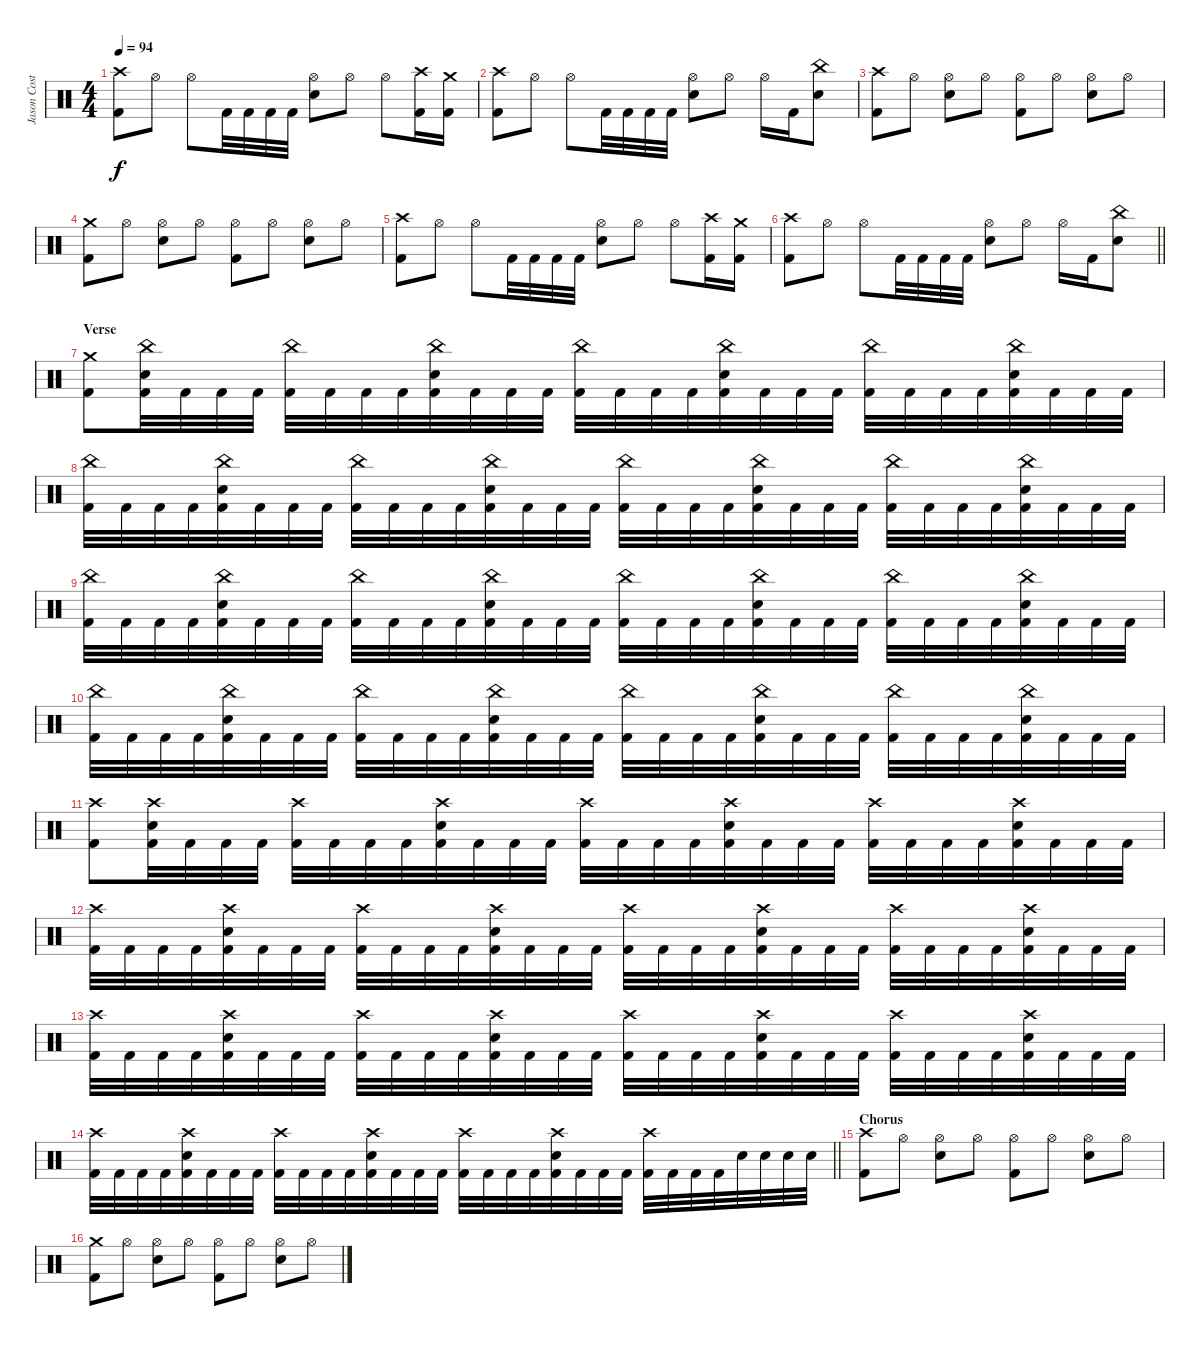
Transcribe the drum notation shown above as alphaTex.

\track ("Jason Costa" "Jason Cost") {instrument percussion}
\staff {score}
\articulation defaults
\ts (4 4)
\tempo 94
\clef neutral
\ks c
("Crash high (hit)" "Kick (hit) 2").8{dy f} "Hi-Hat (open)".8 "Hi-Hat (open)".8 "Kick (hit) 2".32 "Kick (hit) 2".32 "Kick (hit) 2".32 "Kick (hit) 2".32 ("Snare (hit) 2" "Hi-Hat (open)").8 "Hi-Hat (open)".8 "Hi-Hat (open)".8 ("Crash high (hit)" "Kick (hit) 2").16 ("Crash medium (hit)" "Kick (hit) 2").16 |
("Crash high (hit)" "Kick (hit) 2").8 "Hi-Hat (open)".8 "Hi-Hat (open)".8 "Kick (hit) 2".32 "Kick (hit) 2".32 "Kick (hit) 2".32 "Kick (hit) 2".32 ("Snare (hit) 2" "Hi-Hat (open)").8 "Hi-Hat (open)".8 "Hi-Hat (open)".16 "Kick (hit) 2".16 ("China (hit)" "Snare (hit) 2").8 |
("Crash high (hit)" "Kick (hit) 2").8 "Hi-Hat (open)".8 ("Snare (hit) 2" "Hi-Hat (open)").8 "Hi-Hat (open)".8 ("Hi-Hat (open)" "Kick (hit) 2").8 "Hi-Hat (open)".8 ("Snare (hit) 2" "Hi-Hat (open)").8 "Hi-Hat (open)".8 |
("Crash medium (hit)" "Kick (hit) 2").8 "Hi-Hat (open)".8 ("Snare (hit) 2" "Hi-Hat (open)").8 "Hi-Hat (open)".8 ("Hi-Hat (open)" "Kick (hit) 2").8 "Hi-Hat (open)".8 ("Snare (hit) 2" "Hi-Hat (open)").8 "Hi-Hat (open)".8 |
("Crash high (hit)" "Kick (hit) 2").8 "Hi-Hat (open)".8 "Hi-Hat (open)".8 "Kick (hit) 2".32 "Kick (hit) 2".32 "Kick (hit) 2".32 "Kick (hit) 2".32 ("Snare (hit) 2" "Hi-Hat (open)").8 "Hi-Hat (open)".8 "Hi-Hat (open)".8 ("Crash high (hit)" "Kick (hit) 2").16 ("Crash medium (hit)" "Kick (hit) 2").16 |
\barLineRight lightlight
("Crash high (hit)" "Kick (hit) 2").8 "Hi-Hat (open)".8 "Hi-Hat (open)".8 "Kick (hit) 2".32 "Kick (hit) 2".32 "Kick (hit) 2".32 "Kick (hit) 2".32 ("Snare (hit) 2" "Hi-Hat (open)").8 "Hi-Hat (open)".8 "Hi-Hat (open)".16 "Kick (hit) 2".16 ("China (hit)" "Snare (hit) 2").8 |
\section ("" "Verse")
("Crash medium (hit)" "Kick (hit) 2").8 ("China (hit)" "Snare (hit) 2" "Kick (hit) 2").32 "Kick (hit) 2".32 "Kick (hit) 2".32 "Kick (hit) 2".32 ("China (hit)" "Kick (hit) 2").32 "Kick (hit) 2".32 "Kick (hit) 2".32 "Kick (hit) 2".32 ("China (hit)" "Snare (hit) 2" "Kick (hit) 2").32 "Kick (hit) 2".32 "Kick (hit) 2".32 "Kick (hit) 2".32 ("China (hit)" "Kick (hit) 2").32 "Kick (hit) 2".32 "Kick (hit) 2".32 "Kick (hit) 2".32 ("China (hit)" "Snare (hit) 2" "Kick (hit) 2").32 "Kick (hit) 2".32 "Kick (hit) 2".32 "Kick (hit) 2".32 ("China (hit)" "Kick (hit) 2").32 "Kick (hit) 2".32 "Kick (hit) 2".32 "Kick (hit) 2".32 ("China (hit)" "Snare (hit) 2" "Kick (hit) 2").32 "Kick (hit) 2".32 "Kick (hit) 2".32 "Kick (hit) 2".32 |
("China (hit)" "Kick (hit) 2").32 "Kick (hit) 2".32 "Kick (hit) 2".32 "Kick (hit) 2".32 ("China (hit)" "Snare (hit) 2" "Kick (hit) 2").32 "Kick (hit) 2".32 "Kick (hit) 2".32 "Kick (hit) 2".32 ("China (hit)" "Kick (hit) 2").32 "Kick (hit) 2".32 "Kick (hit) 2".32 "Kick (hit) 2".32 ("China (hit)" "Snare (hit) 2" "Kick (hit) 2").32 "Kick (hit) 2".32 "Kick (hit) 2".32 "Kick (hit) 2".32 ("China (hit)" "Kick (hit) 2").32 "Kick (hit) 2".32 "Kick (hit) 2".32 "Kick (hit) 2".32 ("China (hit)" "Snare (hit) 2" "Kick (hit) 2").32 "Kick (hit) 2".32 "Kick (hit) 2".32 "Kick (hit) 2".32 ("China (hit)" "Kick (hit) 2").32 "Kick (hit) 2".32 "Kick (hit) 2".32 "Kick (hit) 2".32 ("China (hit)" "Snare (hit) 2" "Kick (hit) 2").32 "Kick (hit) 2".32 "Kick (hit) 2".32 "Kick (hit) 2".32 |
("China (hit)" "Kick (hit) 2").32 "Kick (hit) 2".32 "Kick (hit) 2".32 "Kick (hit) 2".32 ("China (hit)" "Snare (hit) 2" "Kick (hit) 2").32 "Kick (hit) 2".32 "Kick (hit) 2".32 "Kick (hit) 2".32 ("China (hit)" "Kick (hit) 2").32 "Kick (hit) 2".32 "Kick (hit) 2".32 "Kick (hit) 2".32 ("China (hit)" "Snare (hit) 2" "Kick (hit) 2").32 "Kick (hit) 2".32 "Kick (hit) 2".32 "Kick (hit) 2".32 ("China (hit)" "Kick (hit) 2").32 "Kick (hit) 2".32 "Kick (hit) 2".32 "Kick (hit) 2".32 ("China (hit)" "Snare (hit) 2" "Kick (hit) 2").32 "Kick (hit) 2".32 "Kick (hit) 2".32 "Kick (hit) 2".32 ("China (hit)" "Kick (hit) 2").32 "Kick (hit) 2".32 "Kick (hit) 2".32 "Kick (hit) 2".32 ("China (hit)" "Snare (hit) 2" "Kick (hit) 2").32 "Kick (hit) 2".32 "Kick (hit) 2".32 "Kick (hit) 2".32 |
("China (hit)" "Kick (hit) 2").32 "Kick (hit) 2".32 "Kick (hit) 2".32 "Kick (hit) 2".32 ("China (hit)" "Snare (hit) 2" "Kick (hit) 2").32 "Kick (hit) 2".32 "Kick (hit) 2".32 "Kick (hit) 2".32 ("China (hit)" "Kick (hit) 2").32 "Kick (hit) 2".32 "Kick (hit) 2".32 "Kick (hit) 2".32 ("China (hit)" "Snare (hit) 2" "Kick (hit) 2").32 "Kick (hit) 2".32 "Kick (hit) 2".32 "Kick (hit) 2".32 ("China (hit)" "Kick (hit) 2").32 "Kick (hit) 2".32 "Kick (hit) 2".32 "Kick (hit) 2".32 ("China (hit)" "Snare (hit) 2" "Kick (hit) 2").32 "Kick (hit) 2".32 "Kick (hit) 2".32 "Kick (hit) 2".32 ("China (hit)" "Kick (hit) 2").32 "Kick (hit) 2".32 "Kick (hit) 2".32 "Kick (hit) 2".32 ("China (hit)" "Snare (hit) 2" "Kick (hit) 2").32 "Kick (hit) 2".32 "Kick (hit) 2".32 "Kick (hit) 2".32 |
("Crash high (hit)" "Kick (hit) 2").8 ("Crash high (hit)" "Snare (hit) 2" "Kick (hit) 2").32 "Kick (hit) 2".32 "Kick (hit) 2".32 "Kick (hit) 2".32 ("Crash high (hit)" "Kick (hit) 2").32 "Kick (hit) 2".32 "Kick (hit) 2".32 "Kick (hit) 2".32 ("Crash high (hit)" "Snare (hit) 2" "Kick (hit) 2").32 "Kick (hit) 2".32 "Kick (hit) 2".32 "Kick (hit) 2".32 ("Crash high (hit)" "Kick (hit) 2").32 "Kick (hit) 2".32 "Kick (hit) 2".32 "Kick (hit) 2".32 ("Crash high (hit)" "Snare (hit) 2" "Kick (hit) 2").32 "Kick (hit) 2".32 "Kick (hit) 2".32 "Kick (hit) 2".32 ("Crash high (hit)" "Kick (hit) 2").32 "Kick (hit) 2".32 "Kick (hit) 2".32 "Kick (hit) 2".32 ("Crash high (hit)" "Snare (hit) 2" "Kick (hit) 2").32 "Kick (hit) 2".32 "Kick (hit) 2".32 "Kick (hit) 2".32 |
("Crash high (hit)" "Kick (hit) 2").32 "Kick (hit) 2".32 "Kick (hit) 2".32 "Kick (hit) 2".32 ("Crash high (hit)" "Snare (hit) 2" "Kick (hit) 2").32 "Kick (hit) 2".32 "Kick (hit) 2".32 "Kick (hit) 2".32 ("Crash high (hit)" "Kick (hit) 2").32 "Kick (hit) 2".32 "Kick (hit) 2".32 "Kick (hit) 2".32 ("Crash high (hit)" "Snare (hit) 2" "Kick (hit) 2").32 "Kick (hit) 2".32 "Kick (hit) 2".32 "Kick (hit) 2".32 ("Crash high (hit)" "Kick (hit) 2").32 "Kick (hit) 2".32 "Kick (hit) 2".32 "Kick (hit) 2".32 ("Crash high (hit)" "Snare (hit) 2" "Kick (hit) 2").32 "Kick (hit) 2".32 "Kick (hit) 2".32 "Kick (hit) 2".32 ("Crash high (hit)" "Kick (hit) 2").32 "Kick (hit) 2".32 "Kick (hit) 2".32 "Kick (hit) 2".32 ("Crash high (hit)" "Snare (hit) 2" "Kick (hit) 2").32 "Kick (hit) 2".32 "Kick (hit) 2".32 "Kick (hit) 2".32 |
("Crash high (hit)" "Kick (hit) 2").32 "Kick (hit) 2".32 "Kick (hit) 2".32 "Kick (hit) 2".32 ("Crash high (hit)" "Snare (hit) 2" "Kick (hit) 2").32 "Kick (hit) 2".32 "Kick (hit) 2".32 "Kick (hit) 2".32 ("Crash high (hit)" "Kick (hit) 2").32 "Kick (hit) 2".32 "Kick (hit) 2".32 "Kick (hit) 2".32 ("Crash high (hit)" "Snare (hit) 2" "Kick (hit) 2").32 "Kick (hit) 2".32 "Kick (hit) 2".32 "Kick (hit) 2".32 ("Crash high (hit)" "Kick (hit) 2").32 "Kick (hit) 2".32 "Kick (hit) 2".32 "Kick (hit) 2".32 ("Crash high (hit)" "Snare (hit) 2" "Kick (hit) 2").32 "Kick (hit) 2".32 "Kick (hit) 2".32 "Kick (hit) 2".32 ("Crash high (hit)" "Kick (hit) 2").32 "Kick (hit) 2".32 "Kick (hit) 2".32 "Kick (hit) 2".32 ("Crash high (hit)" "Snare (hit) 2" "Kick (hit) 2").32 "Kick (hit) 2".32 "Kick (hit) 2".32 "Kick (hit) 2".32 |
\barLineRight lightlight
("Crash high (hit)" "Kick (hit) 2").32 "Kick (hit) 2".32 "Kick (hit) 2".32 "Kick (hit) 2".32 ("Crash high (hit)" "Snare (hit) 2" "Kick (hit) 2").32 "Kick (hit) 2".32 "Kick (hit) 2".32 "Kick (hit) 2".32 ("Crash high (hit)" "Kick (hit) 2").32 "Kick (hit) 2".32 "Kick (hit) 2".32 "Kick (hit) 2".32 ("Crash high (hit)" "Snare (hit) 2" "Kick (hit) 2").32 "Kick (hit) 2".32 "Kick (hit) 2".32 "Kick (hit) 2".32 ("Crash high (hit)" "Kick (hit) 2").32 "Kick (hit) 2".32 "Kick (hit) 2".32 "Kick (hit) 2".32 ("Crash high (hit)" "Snare (hit) 2" "Kick (hit) 2").32 "Kick (hit) 2".32 "Kick (hit) 2".32 "Kick (hit) 2".32 ("Crash high (hit)" "Kick (hit) 2").32 "Kick (hit) 2".32 "Kick (hit) 2".32 "Kick (hit) 2".32 "Snare (hit) 2".32 "Snare (hit) 2".32 "Snare (hit) 2".32 "Snare (hit) 2".32 |
\section ("" "Chorus")
("Crash high (hit)" "Kick (hit) 2").8 "Hi-Hat (open)".8 ("Snare (hit) 2" "Hi-Hat (open)").8 "Hi-Hat (open)".8 ("Hi-Hat (open)" "Kick (hit) 2").8 "Hi-Hat (open)".8 ("Snare (hit) 2" "Hi-Hat (open)").8 "Hi-Hat (open)".8 |
("Crash medium (hit)" "Kick (hit) 2").8 "Hi-Hat (open)".8 ("Snare (hit) 2" "Hi-Hat (open)").8 "Hi-Hat (open)".8 ("Hi-Hat (open)" "Kick (hit) 2").8 "Hi-Hat (open)".8 ("Snare (hit) 2" "Hi-Hat (open)").8 "Hi-Hat (open)".8
